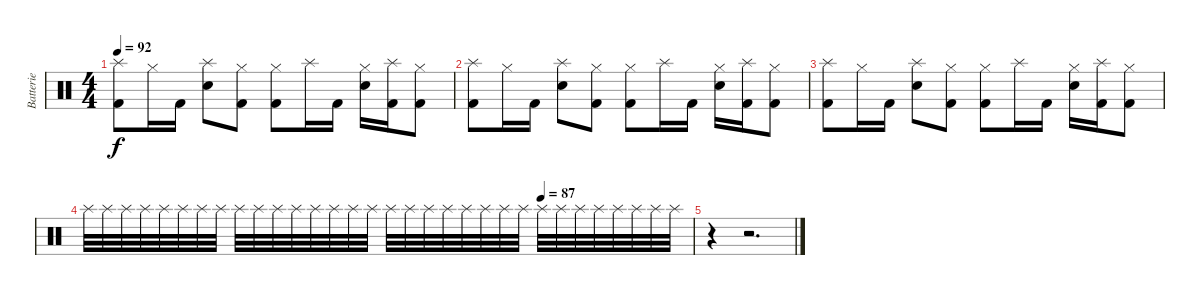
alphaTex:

\track ("Batterie" "Batterie") {instrument percussion}
\staff {score}
\articulation defaults
\ts (4 4)
\tempo 92
\clef neutral
\ks c
("Splash (hit)" "Kick (hit) 2").8{dy f} "Hi-Hat (closed)".16 "Kick (hit) 2".16 ("Splash (hit)" "Snare (hit) 2").8 ("Hi-Hat (closed)" "Kick (hit) 2").8 ("Hi-Hat (closed)" "Kick (hit) 2").8 "Splash (hit)".16 "Kick (hit) 2".16 ("Hi-Hat (closed)" "Snare (hit) 2").16 ("Splash (hit)" "Kick (hit) 2").16 ("Hi-Hat (closed)" "Kick (hit) 2").8 |
("Splash (hit)" "Kick (hit) 2").8 "Hi-Hat (closed)".16 "Kick (hit) 2".16 ("Splash (hit)" "Snare (hit) 2").8 ("Hi-Hat (closed)" "Kick (hit) 2").8 ("Hi-Hat (closed)" "Kick (hit) 2").8 "Splash (hit)".16 "Kick (hit) 2".16 ("Hi-Hat (closed)" "Snare (hit) 2").16 ("Splash (hit)" "Kick (hit) 2").16 ("Hi-Hat (closed)" "Kick (hit) 2").8 |
("Splash (hit)" "Kick (hit) 2").8 "Hi-Hat (closed)".16 "Kick (hit) 2".16 ("Splash (hit)" "Snare (hit) 2").8 ("Hi-Hat (closed)" "Kick (hit) 2").8 ("Hi-Hat (closed)" "Kick (hit) 2").8 "Splash (hit)".16 "Kick (hit) 2".16 ("Hi-Hat (closed)" "Snare (hit) 2").16 ("Splash (hit)" "Kick (hit) 2").16 ("Hi-Hat (closed)" "Kick (hit) 2").8 |
\tempo (87 0.75)
"Splash (hit)".32{volume 0} "Splash (hit)".32 "Splash (hit)".32 "Splash (hit)".32 "Splash (hit)".32 "Splash (hit)".32 "Splash (hit)".32 "Splash (hit)".32 "Splash (hit)".32 "Splash (hit)".32 "Splash (hit)".32 "Splash (hit)".32 "Splash (hit)".32 "Splash (hit)".32 "Splash (hit)".32 "Splash (hit)".32 "Splash (hit)".32 "Splash (hit)".32 "Splash (hit)".32 "Splash (hit)".32 "Splash (hit)".32 "Splash (hit)".32 "Splash (hit)".32 "Splash (hit)".32 "Splash (hit)".32 "Splash (hit)".32 "Splash (hit)".32 "Splash (hit)".32 "Splash (hit)".32 "Splash (hit)".32 "Splash (hit)".32 "Splash (hit)".32 |
r.4 r.2{d volume 13}
